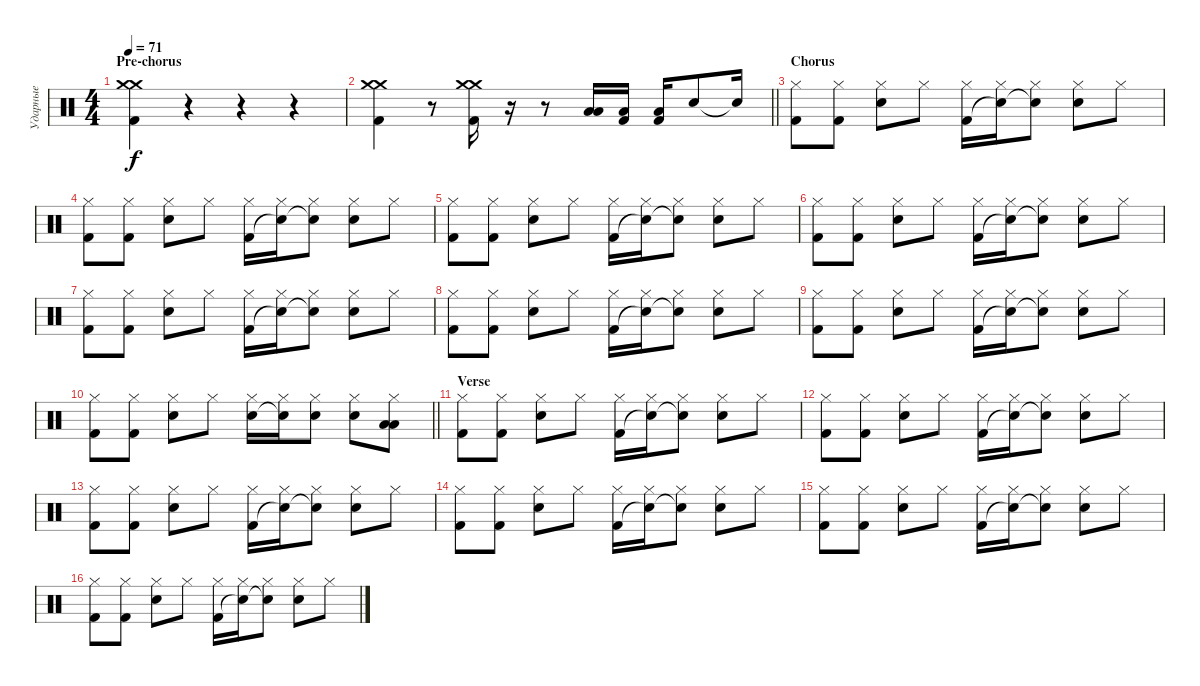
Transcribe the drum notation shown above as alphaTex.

\track ("Ударные" "Ударные") {instrument percussion}
\staff {score}
\articulation defaults
\ts (4 4)
\section ("" "Pre-chorus")
\tempo 71
\clef neutral
\ks c
("Crash medium (hit)" "Crash medium (hit)" "Kick (hit) 2").4{dy f} r.4 r.4 r.4 |
\barLineRight lightlight
("Crash medium (hit)" "Crash medium (hit)" "Kick (hit) 2").4 r.8 ("Crash medium (hit)" "Crash medium (hit)" "Kick (hit) 2").16 r.16 r.8 ("Low Tom (hit)" "Low Tom (hit)").16 ("Low Tom (hit)" "Kick (hit) 2").16 ("Low Tom (hit)" "Kick (hit) 2").16 "Electric Snare (hit)".8 "Snare (hit)"{t}.16 |
\section ("" "Chorus")
("Kick (hit) 2" "Hi-Hat (closed)").8 ("Kick (hit) 2" "Hi-Hat (closed)").8 ("Electric Snare (hit)" "Hi-Hat (closed)").8 "Hi-Hat (closed)".8 ("Kick (hit) 2" "Hi-Hat (closed)").16 ("Snare (hit)"{t} "Hi-Hat (closed)").16 ("Snare (hit)"{t} "Hi-Hat (closed)").8 ("Electric Snare (hit)" "Hi-Hat (closed)").8 "Hi-Hat (closed)".8 |
("Kick (hit) 2" "Hi-Hat (closed)").8 ("Kick (hit) 2" "Hi-Hat (closed)").8 ("Electric Snare (hit)" "Hi-Hat (closed)").8 "Hi-Hat (closed)".8 ("Kick (hit) 2" "Hi-Hat (closed)").16 ("Snare (hit)"{t} "Hi-Hat (closed)").16 ("Snare (hit)"{t} "Hi-Hat (closed)").8 ("Electric Snare (hit)" "Hi-Hat (closed)").8 "Hi-Hat (closed)".8 |
("Kick (hit) 2" "Hi-Hat (closed)").8 ("Kick (hit) 2" "Hi-Hat (closed)").8 ("Electric Snare (hit)" "Hi-Hat (closed)").8 "Hi-Hat (closed)".8 ("Kick (hit) 2" "Hi-Hat (closed)").16 ("Snare (hit)"{t} "Hi-Hat (closed)").16 ("Snare (hit)"{t} "Hi-Hat (closed)").8 ("Electric Snare (hit)" "Hi-Hat (closed)").8 "Hi-Hat (closed)".8 |
("Kick (hit) 2" "Hi-Hat (closed)").8 ("Kick (hit) 2" "Hi-Hat (closed)").8 ("Electric Snare (hit)" "Hi-Hat (closed)").8 "Hi-Hat (closed)".8 ("Kick (hit) 2" "Hi-Hat (closed)").16 ("Snare (hit)"{t} "Hi-Hat (closed)").16 ("Snare (hit)"{t} "Hi-Hat (closed)").8 ("Electric Snare (hit)" "Hi-Hat (closed)").8 "Hi-Hat (closed)".8 |
("Kick (hit) 2" "Hi-Hat (closed)").8 ("Kick (hit) 2" "Hi-Hat (closed)").8 ("Electric Snare (hit)" "Hi-Hat (closed)").8 "Hi-Hat (closed)".8 ("Kick (hit) 2" "Hi-Hat (closed)").16 ("Snare (hit)"{t} "Hi-Hat (closed)").16 ("Snare (hit)"{t} "Hi-Hat (closed)").8 ("Electric Snare (hit)" "Hi-Hat (closed)").8 "Hi-Hat (closed)".8 |
("Kick (hit) 2" "Hi-Hat (closed)").8 ("Kick (hit) 2" "Hi-Hat (closed)").8 ("Electric Snare (hit)" "Hi-Hat (closed)").8 "Hi-Hat (closed)".8 ("Kick (hit) 2" "Hi-Hat (closed)").16 ("Snare (hit)"{t} "Hi-Hat (closed)").16 ("Snare (hit)"{t} "Hi-Hat (closed)").8 ("Electric Snare (hit)" "Hi-Hat (closed)").8 "Hi-Hat (closed)".8 |
("Kick (hit) 2" "Hi-Hat (closed)").8 ("Kick (hit) 2" "Hi-Hat (closed)").8 ("Electric Snare (hit)" "Hi-Hat (closed)").8 "Hi-Hat (closed)".8 ("Kick (hit) 2" "Hi-Hat (closed)").16 ("Snare (hit)"{t} "Hi-Hat (closed)").16 ("Snare (hit)"{t} "Hi-Hat (closed)").8 ("Electric Snare (hit)" "Hi-Hat (closed)").8 "Hi-Hat (closed)".8 |
\barLineRight lightlight
("Kick (hit) 2" "Hi-Hat (closed)").8 ("Kick (hit) 2" "Hi-Hat (closed)").8 ("Electric Snare (hit)" "Hi-Hat (closed)").8 "Hi-Hat (closed)".8 ("Electric Snare (hit)" "Hi-Hat (closed)").16 ("Snare (hit)"{t} "Hi-Hat (closed)").16 ("Electric Snare (hit)" "Hi-Hat (closed)").8 ("Electric Snare (hit)" "Hi-Hat (closed)").8 ("Low Tom (hit)" "Low Tom (hit)" "Hi-Hat (closed)").8 |
\section ("" "Verse")
("Kick (hit) 2" "Hi-Hat (closed)").8 ("Kick (hit) 2" "Hi-Hat (closed)").8 ("Electric Snare (hit)" "Hi-Hat (closed)").8 "Hi-Hat (closed)".8 ("Kick (hit) 2" "Hi-Hat (closed)").16 ("Snare (hit)"{t} "Hi-Hat (closed)").16 ("Snare (hit)"{t} "Hi-Hat (closed)").8 ("Electric Snare (hit)" "Hi-Hat (closed)").8 "Hi-Hat (closed)".8 |
("Kick (hit) 2" "Hi-Hat (closed)").8 ("Kick (hit) 2" "Hi-Hat (closed)").8 ("Electric Snare (hit)" "Hi-Hat (closed)").8 "Hi-Hat (closed)".8 ("Kick (hit) 2" "Hi-Hat (closed)").16 ("Snare (hit)"{t} "Hi-Hat (closed)").16 ("Snare (hit)"{t} "Hi-Hat (closed)").8 ("Electric Snare (hit)" "Hi-Hat (closed)").8 "Hi-Hat (closed)".8 |
("Kick (hit) 2" "Hi-Hat (closed)").8 ("Kick (hit) 2" "Hi-Hat (closed)").8 ("Electric Snare (hit)" "Hi-Hat (closed)").8 "Hi-Hat (closed)".8 ("Kick (hit) 2" "Hi-Hat (closed)").16 ("Snare (hit)"{t} "Hi-Hat (closed)").16 ("Snare (hit)"{t} "Hi-Hat (closed)").8 ("Electric Snare (hit)" "Hi-Hat (closed)").8 "Hi-Hat (closed)".8 |
("Kick (hit) 2" "Hi-Hat (closed)").8 ("Kick (hit) 2" "Hi-Hat (closed)").8 ("Electric Snare (hit)" "Hi-Hat (closed)").8 "Hi-Hat (closed)".8 ("Kick (hit) 2" "Hi-Hat (closed)").16 ("Snare (hit)"{t} "Hi-Hat (closed)").16 ("Snare (hit)"{t} "Hi-Hat (closed)").8 ("Electric Snare (hit)" "Hi-Hat (closed)").8 "Hi-Hat (closed)".8 |
("Kick (hit) 2" "Hi-Hat (closed)").8 ("Kick (hit) 2" "Hi-Hat (closed)").8 ("Electric Snare (hit)" "Hi-Hat (closed)").8 "Hi-Hat (closed)".8 ("Kick (hit) 2" "Hi-Hat (closed)").16 ("Snare (hit)"{t} "Hi-Hat (closed)").16 ("Snare (hit)"{t} "Hi-Hat (closed)").8 ("Electric Snare (hit)" "Hi-Hat (closed)").8 "Hi-Hat (closed)".8 |
("Kick (hit) 2" "Hi-Hat (closed)").8 ("Kick (hit) 2" "Hi-Hat (closed)").8 ("Electric Snare (hit)" "Hi-Hat (closed)").8 "Hi-Hat (closed)".8 ("Kick (hit) 2" "Hi-Hat (closed)").16 ("Snare (hit)"{t} "Hi-Hat (closed)").16 ("Snare (hit)"{t} "Hi-Hat (closed)").8 ("Electric Snare (hit)" "Hi-Hat (closed)").8 "Hi-Hat (closed)".8
